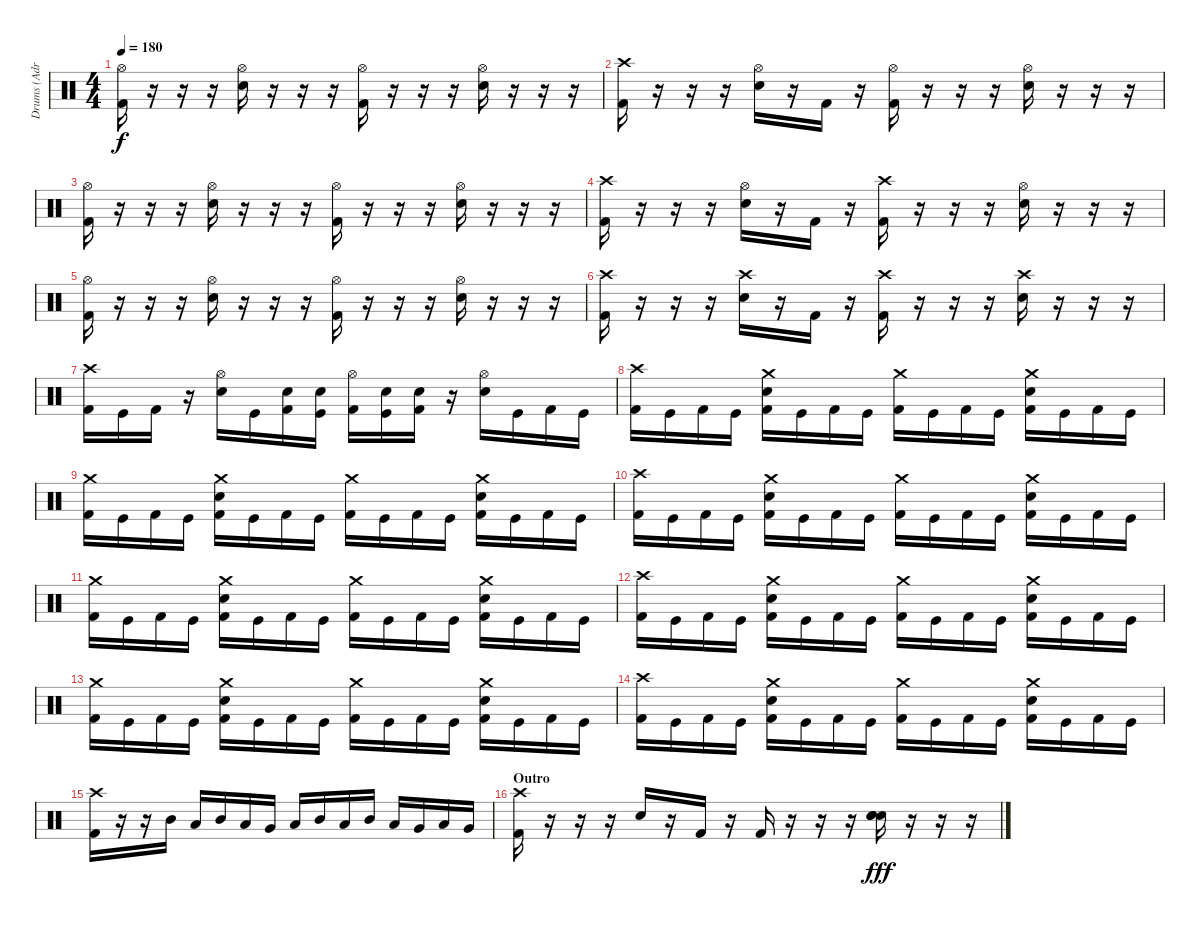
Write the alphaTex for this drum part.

\track ("Drums (Adrian)" "Drums (Adr") {instrument percussion}
\staff {score}
\articulation defaults
\ts (4 4)
\tempo 180
\clef neutral
\ks c
("Hi-Hat (open)" "Kick (hit) 2").16{dy f} r.16 r.16 r.16 ("Hi-Hat (open)" "Electric Snare (hit)").16 r.16 r.16 r.16 ("Hi-Hat (open)" "Kick (hit) 2").16 r.16 r.16 r.16 ("Hi-Hat (open)" "Electric Snare (hit)").16 r.16 r.16 r.16 |
("Crash high (hit)" "Kick (hit) 2").16 r.16 r.16 r.16 ("Hi-Hat (open)" "Electric Snare (hit)").16 r.16 "Kick (hit) 2".16 r.16 ("Hi-Hat (open)" "Kick (hit) 2").16 r.16 r.16 r.16 ("Hi-Hat (open)" "Electric Snare (hit)").16 r.16 r.16 r.16 |
("Hi-Hat (open)" "Kick (hit) 2").16 r.16 r.16 r.16 ("Hi-Hat (open)" "Electric Snare (hit)").16 r.16 r.16 r.16 ("Hi-Hat (open)" "Kick (hit) 2").16 r.16 r.16 r.16 ("Hi-Hat (open)" "Electric Snare (hit)").16 r.16 r.16 r.16 |
("Crash high (hit)" "Kick (hit) 2").16 r.16 r.16 r.16 ("Hi-Hat (open)" "Electric Snare (hit)").16 r.16 "Kick (hit) 2".16 r.16 ("Crash high (hit)" "Kick (hit) 2").16 r.16 r.16 r.16 ("Hi-Hat (open)" "Electric Snare (hit)").16 r.16 r.16 r.16 |
("Hi-Hat (open)" "Kick (hit) 2").16 r.16 r.16 r.16 ("Hi-Hat (open)" "Electric Snare (hit)").16 r.16 r.16 r.16 ("Hi-Hat (open)" "Kick (hit) 2").16 r.16 r.16 r.16 ("Hi-Hat (open)" "Electric Snare (hit)").16 r.16 r.16 r.16 |
("Crash high (hit)" "Kick (hit) 2").16 r.16 r.16 r.16 ("Crash high (hit)" "Electric Snare (hit)").16 r.16 "Kick (hit) 2".16 r.16 ("Crash high (hit)" "Kick (hit) 2").16 r.16 r.16 r.16 ("Crash high (hit)" "Electric Snare (hit)").16 r.16 r.16 r.16 |
("Crash high (hit)" "Kick (hit) 2").16 "Kick (hit)".16 "Kick (hit) 2".16 r.16 ("Hi-Hat (open)" "Electric Snare (hit)").16 "Kick (hit)".16 ("Electric Snare (hit)" "Kick (hit) 2").16 ("Electric Snare (hit)" "Kick (hit)").16 ("Hi-Hat (open)" "Kick (hit) 2").16 ("Electric Snare (hit)" "Kick (hit)").16 ("Electric Snare (hit)" "Kick (hit) 2").16 r.16 ("Hi-Hat (open)" "Electric Snare (hit)").16 "Kick (hit)".16 "Kick (hit) 2".16 "Kick (hit)".16 |
("Crash high (hit)" "Kick (hit) 2").16 "Kick (hit)".16 "Kick (hit) 2".16 "Kick (hit)".16 ("Crash medium (hit)" "Electric Snare (hit)" "Kick (hit) 2").16 "Kick (hit)".16 "Kick (hit) 2".16 "Kick (hit)".16 ("Crash medium (hit)" "Kick (hit) 2").16 "Kick (hit)".16 "Kick (hit) 2".16 "Kick (hit)".16 ("Crash medium (hit)" "Electric Snare (hit)" "Kick (hit) 2").16 "Kick (hit)".16 "Kick (hit) 2".16 "Kick (hit)".16 |
("Crash medium (hit)" "Kick (hit) 2").16 "Kick (hit)".16 "Kick (hit) 2".16 "Kick (hit)".16 ("Crash medium (hit)" "Electric Snare (hit)" "Kick (hit) 2").16 "Kick (hit)".16 "Kick (hit) 2".16 "Kick (hit)".16 ("Crash medium (hit)" "Kick (hit) 2").16 "Kick (hit)".16 "Kick (hit) 2".16 "Kick (hit)".16 ("Crash medium (hit)" "Electric Snare (hit)" "Kick (hit) 2").16 "Kick (hit)".16 "Kick (hit) 2".16 "Kick (hit)".16 |
("Crash high (hit)" "Kick (hit) 2").16 "Kick (hit)".16 "Kick (hit) 2".16 "Kick (hit)".16 ("Crash medium (hit)" "Electric Snare (hit)" "Kick (hit) 2").16 "Kick (hit)".16 "Kick (hit) 2".16 "Kick (hit)".16 ("Crash medium (hit)" "Kick (hit) 2").16 "Kick (hit)".16 "Kick (hit) 2".16 "Kick (hit)".16 ("Crash medium (hit)" "Electric Snare (hit)" "Kick (hit) 2").16 "Kick (hit)".16 "Kick (hit) 2".16 "Kick (hit)".16 |
("Crash medium (hit)" "Kick (hit) 2").16 "Kick (hit)".16 "Kick (hit) 2".16 "Kick (hit)".16 ("Crash medium (hit)" "Electric Snare (hit)" "Kick (hit) 2").16 "Kick (hit)".16 "Kick (hit) 2".16 "Kick (hit)".16 ("Crash medium (hit)" "Kick (hit) 2").16 "Kick (hit)".16 "Kick (hit) 2".16 "Kick (hit)".16 ("Crash medium (hit)" "Electric Snare (hit)" "Kick (hit) 2").16 "Kick (hit)".16 "Kick (hit) 2".16 "Kick (hit)".16 |
("Crash high (hit)" "Kick (hit) 2").16 "Kick (hit)".16 "Kick (hit) 2".16 "Kick (hit)".16 ("Crash medium (hit)" "Electric Snare (hit)" "Kick (hit) 2").16 "Kick (hit)".16 "Kick (hit) 2".16 "Kick (hit)".16 ("Crash medium (hit)" "Kick (hit) 2").16 "Kick (hit)".16 "Kick (hit) 2".16 "Kick (hit)".16 ("Crash medium (hit)" "Electric Snare (hit)" "Kick (hit) 2").16 "Kick (hit)".16 "Kick (hit) 2".16 "Kick (hit)".16 |
("Crash medium (hit)" "Kick (hit) 2").16 "Kick (hit)".16 "Kick (hit) 2".16 "Kick (hit)".16 ("Crash medium (hit)" "Electric Snare (hit)" "Kick (hit) 2").16 "Kick (hit)".16 "Kick (hit) 2".16 "Kick (hit)".16 ("Crash medium (hit)" "Kick (hit) 2").16 "Kick (hit)".16 "Kick (hit) 2".16 "Kick (hit)".16 ("Crash medium (hit)" "Electric Snare (hit)" "Kick (hit) 2").16 "Kick (hit)".16 "Kick (hit) 2".16 "Kick (hit)".16 |
("Crash high (hit)" "Kick (hit) 2").16 "Kick (hit)".16 "Kick (hit) 2".16 "Kick (hit)".16 ("Crash medium (hit)" "Electric Snare (hit)" "Kick (hit) 2").16 "Kick (hit)".16 "Kick (hit) 2".16 "Kick (hit)".16 ("Crash medium (hit)" "Kick (hit) 2").16 "Kick (hit)".16 "Kick (hit) 2".16 "Kick (hit)".16 ("Crash medium (hit)" "Electric Snare (hit)" "Kick (hit) 2").16 "Kick (hit)".16 "Kick (hit) 2".16 "Kick (hit)".16 |
("Crash high (hit)" "Kick (hit) 2").16 r.16 r.16 "Mid Tom (hit)".16 "Low Tom (hit)".16 "Mid Tom (hit)".16 "Low Tom (hit)".16 "Very Low Tom (hit)".16 "Low Tom (hit)".16 "Mid Tom (hit)".16 "Low Tom (hit)".16 "Mid Tom (hit)".16 "Low Tom (hit)".16 "Very Low Tom (hit)".16 "Low Floor Tom (hit)".16 "Very Low Tom (hit)".16 |
\section ("" "Outro")
("Crash high (hit)" "Kick (hit) 2").16 r.16 r.16 r.16 "Electric Snare (hit)".16 r.16 "Kick (hit) 2".16 r.16 "Kick (hit) 2".16 r.16 r.16 r.16 ("Electric Snare (hit)" "Electric Snare (hit)" "Electric Snare (hit)").16{dy fff} r.16 r.16 r.16
